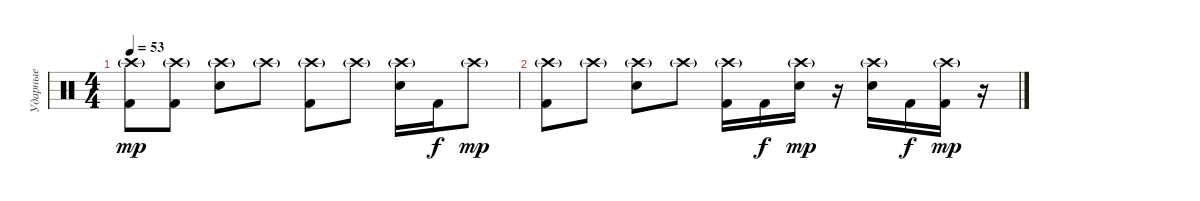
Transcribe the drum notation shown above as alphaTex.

\track ("Ударные" "Ударные") {instrument percussion}
\staff {score}
\articulation defaults
\ts (4 4)
\tempo 53
\clef neutral
\ks c
("Crash high (hit)"{g} "Kick (hit) 2").8{dy mp} ("Crash high (hit)"{g} "Kick (hit) 2").8 ("Crash high (hit)"{g} "Snare (hit) 2").8 "Crash high (hit)"{g}.8 ("Crash high (hit)"{g} "Kick (hit) 2").8 "Crash high (hit)"{g}.8 ("Crash high (hit)"{g} "Snare (hit) 2").16 "Kick (hit) 2".16{dy f} "Crash high (hit)"{g}.8{dy mp} |
("Crash high (hit)"{g} "Kick (hit) 2").8 "Crash high (hit)"{g}.8 ("Crash high (hit)"{g} "Snare (hit) 2").8 "Crash high (hit)"{g}.8 ("Crash high (hit)"{g} "Kick (hit) 2").16 "Kick (hit) 2".16{dy f} ("Crash high (hit)"{g} "Snare (hit) 2").16{dy mp} r.16 ("Crash high (hit)"{g} "Snare (hit) 2").16 "Kick (hit) 2".16{dy f} ("Crash high (hit)"{g} "Kick (hit) 2").16{dy mp} r.16
